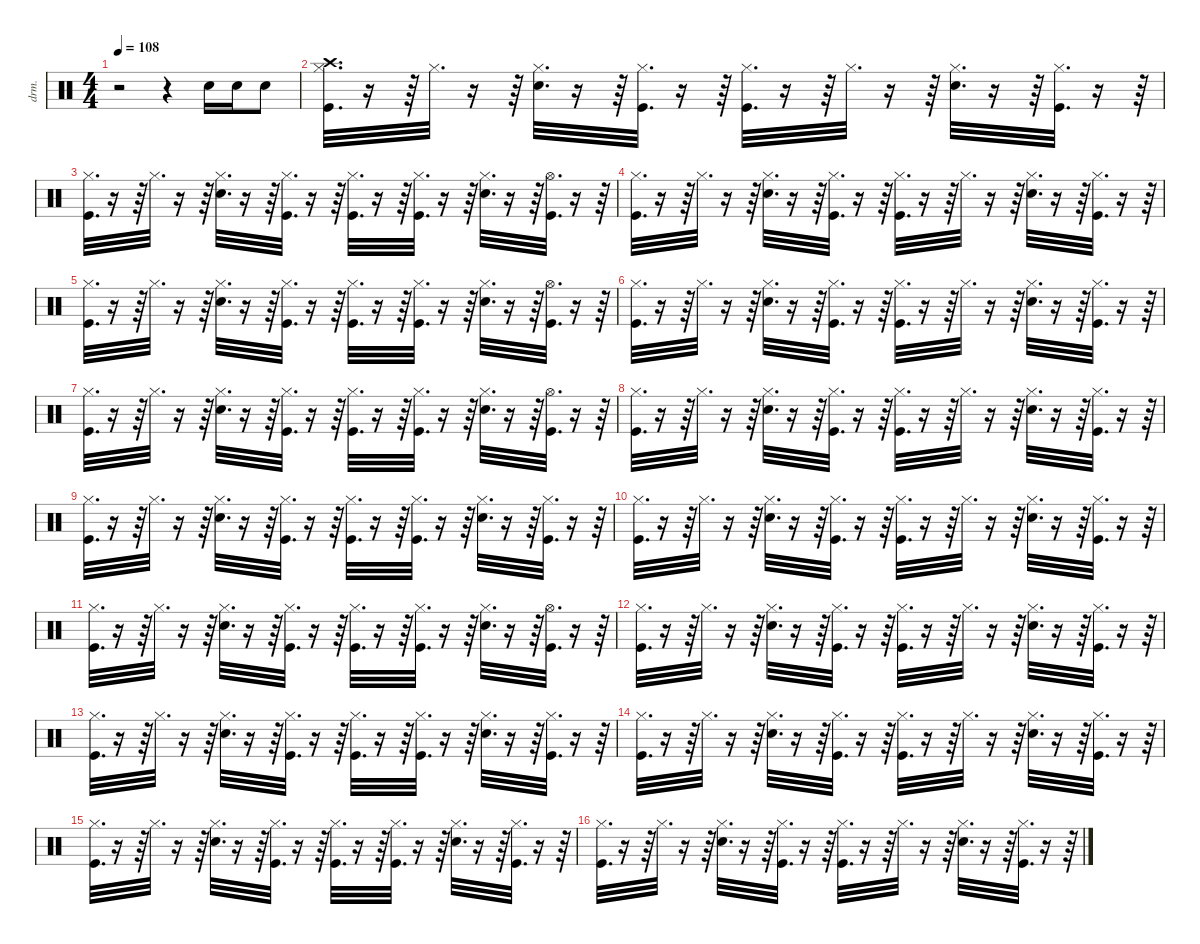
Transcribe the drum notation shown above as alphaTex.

\defaultSystemsLayout 4
\hideDynamics
\bracketExtendMode nobrackets
\otherSystemsTrackNameOrientation horizontal
\track ("Percussions" "drm.") {instrument percussion}
\staff {score}
\articulation defaults
\ts (4 4)
\tempo 108
\clef neutral
\ks c
r.2{dy f} r.4 "Snare (hit) 2".16 "Snare (hit) 2".16 "Snare (hit) 2".8 |
("Crash high (hit)" "Kick (hit)" "Hi-Hat (closed)").32{d} r.16 r.64 "Hi-Hat (closed)".32{d} r.16 r.64 ("Hi-Hat (closed)" "Snare (hit) 2").32{d} r.16 r.64 ("Hi-Hat (closed)" "Kick (hit)").32{d} r.16 r.64 ("Hi-Hat (closed)" "Kick (hit)").32{d} r.16 r.64 "Hi-Hat (closed)".32{d} r.16 r.64 ("Hi-Hat (closed)" "Snare (hit) 2").32{d} r.16 r.64 ("Hi-Hat (closed)" "Kick (hit)").32{d} r.16 r.64 |
("Hi-Hat (closed)" "Kick (hit)").32{d} r.16 r.64 "Hi-Hat (closed)".32{d} r.16 r.64 ("Hi-Hat (closed)" "Snare (hit) 2").32{d} r.16 r.64 ("Hi-Hat (closed)" "Kick (hit)").32{d} r.16 r.64 ("Hi-Hat (closed)" "Kick (hit)").32{d} r.16 r.64 ("Hi-Hat (closed)" "Kick (hit)").32{d} r.16 r.64 ("Hi-Hat (closed)" "Snare (hit) 2").32{d} r.16 r.64 ("Hi-Hat (open)" "Kick (hit)").32{d} r.16 r.64 |
("Hi-Hat (closed)" "Kick (hit)").32{d} r.16 r.64 "Hi-Hat (closed)".32{d} r.16 r.64 ("Hi-Hat (closed)" "Snare (hit) 2").32{d} r.16 r.64 ("Hi-Hat (closed)" "Kick (hit)").32{d} r.16 r.64 ("Hi-Hat (closed)" "Kick (hit)").32{d} r.16 r.64 "Hi-Hat (closed)".32{d} r.16 r.64 ("Hi-Hat (closed)" "Snare (hit) 2").32{d} r.16 r.64 ("Hi-Hat (closed)" "Kick (hit)").32{d} r.16 r.64 |
("Hi-Hat (closed)" "Kick (hit)").32{d} r.16 r.64 "Hi-Hat (closed)".32{d} r.16 r.64 ("Hi-Hat (closed)" "Snare (hit) 2").32{d} r.16 r.64 ("Hi-Hat (closed)" "Kick (hit)").32{d} r.16 r.64 ("Hi-Hat (closed)" "Kick (hit)").32{d} r.16 r.64 ("Hi-Hat (closed)" "Kick (hit)").32{d} r.16 r.64 ("Hi-Hat (closed)" "Snare (hit) 2").32{d} r.16 r.64 ("Hi-Hat (open)" "Kick (hit)").32{d} r.16 r.64 |
("Hi-Hat (closed)" "Kick (hit)").32{d} r.16 r.64 "Hi-Hat (closed)".32{d} r.16 r.64 ("Hi-Hat (closed)" "Snare (hit) 2").32{d} r.16 r.64 ("Hi-Hat (closed)" "Kick (hit)").32{d} r.16 r.64 ("Hi-Hat (closed)" "Kick (hit)").32{d} r.16 r.64 "Hi-Hat (closed)".32{d} r.16 r.64 ("Hi-Hat (closed)" "Snare (hit) 2").32{d} r.16 r.64 ("Hi-Hat (closed)" "Kick (hit)").32{d} r.16 r.64 |
("Hi-Hat (closed)" "Kick (hit)").32{d} r.16 r.64 "Hi-Hat (closed)".32{d} r.16 r.64 ("Hi-Hat (closed)" "Snare (hit) 2").32{d} r.16 r.64 ("Hi-Hat (closed)" "Kick (hit)").32{d} r.16 r.64 ("Hi-Hat (closed)" "Kick (hit)").32{d} r.16 r.64 ("Hi-Hat (closed)" "Kick (hit)").32{d} r.16 r.64 ("Hi-Hat (closed)" "Snare (hit) 2").32{d} r.16 r.64 ("Hi-Hat (open)" "Kick (hit)").32{d} r.16 r.64 |
("Hi-Hat (closed)" "Kick (hit)").32{d} r.16 r.64 "Hi-Hat (closed)".32{d} r.16 r.64 ("Hi-Hat (closed)" "Snare (hit) 2").32{d} r.16 r.64 ("Hi-Hat (closed)" "Kick (hit)").32{d} r.16 r.64 ("Hi-Hat (closed)" "Kick (hit)").32{d} r.16 r.64 "Hi-Hat (closed)".32{d} r.16 r.64 ("Hi-Hat (closed)" "Snare (hit) 2").32{d} r.16 r.64 ("Hi-Hat (closed)" "Kick (hit)").32{d} r.16 r.64 |
("Hi-Hat (closed)" "Kick (hit)").32{d} r.16 r.64 "Hi-Hat (closed)".32{d} r.16 r.64 ("Hi-Hat (closed)" "Snare (hit) 2").32{d} r.16 r.64 ("Hi-Hat (closed)" "Kick (hit)").32{d} r.16 r.64 ("Hi-Hat (closed)" "Kick (hit)").32{d} r.16 r.64 ("Hi-Hat (closed)" "Kick (hit)").32{d} r.16 r.64 ("Hi-Hat (closed)" "Snare (hit) 2").32{d} r.16 r.64 ("Hi-Hat (closed)" "Kick (hit)").32{d} r.16 r.64 |
("Hi-Hat (closed)" "Kick (hit)").32{d} r.16 r.64 "Hi-Hat (closed)".32{d} r.16 r.64 ("Hi-Hat (closed)" "Snare (hit) 2").32{d} r.16 r.64 ("Hi-Hat (closed)" "Kick (hit)").32{d} r.16 r.64 ("Hi-Hat (closed)" "Kick (hit)").32{d} r.16 r.64 "Hi-Hat (closed)".32{d} r.16 r.64 ("Hi-Hat (closed)" "Snare (hit) 2").32{d} r.16 r.64 ("Hi-Hat (closed)" "Kick (hit)").32{d} r.16 r.64 |
("Hi-Hat (closed)" "Kick (hit)").32{d} r.16 r.64 "Hi-Hat (closed)".32{d} r.16 r.64 ("Hi-Hat (closed)" "Snare (hit) 2").32{d} r.16 r.64 ("Hi-Hat (closed)" "Kick (hit)").32{d} r.16 r.64 ("Hi-Hat (closed)" "Kick (hit)").32{d} r.16 r.64 ("Hi-Hat (closed)" "Kick (hit)").32{d} r.16 r.64 ("Hi-Hat (closed)" "Snare (hit) 2").32{d} r.16 r.64 ("Hi-Hat (open)" "Kick (hit)").32{d} r.16 r.64 |
("Hi-Hat (closed)" "Kick (hit)").32{d} r.16 r.64 "Hi-Hat (closed)".32{d} r.16 r.64 ("Hi-Hat (closed)" "Snare (hit) 2").32{d} r.16 r.64 ("Hi-Hat (closed)" "Kick (hit)").32{d} r.16 r.64 ("Hi-Hat (closed)" "Kick (hit)").32{d} r.16 r.64 "Hi-Hat (closed)".32{d} r.16 r.64 ("Hi-Hat (closed)" "Snare (hit) 2").32{d} r.16 r.64 ("Hi-Hat (closed)" "Kick (hit)").32{d} r.16 r.64 |
("Hi-Hat (closed)" "Kick (hit)").32{d} r.16 r.64 "Hi-Hat (closed)".32{d} r.16 r.64 ("Hi-Hat (closed)" "Snare (hit) 2").32{d} r.16 r.64 ("Hi-Hat (closed)" "Kick (hit)").32{d} r.16 r.64 ("Hi-Hat (closed)" "Kick (hit)").32{d} r.16 r.64 ("Hi-Hat (closed)" "Kick (hit)").32{d} r.16 r.64 ("Hi-Hat (closed)" "Snare (hit) 2").32{d} r.16 r.64 ("Hi-Hat (closed)" "Kick (hit)").32{d} r.16 r.64 |
("Hi-Hat (closed)" "Kick (hit)").32{d} r.16 r.64 "Hi-Hat (closed)".32{d} r.16 r.64 ("Hi-Hat (closed)" "Snare (hit) 2").32{d} r.16 r.64 ("Hi-Hat (closed)" "Kick (hit)").32{d} r.16 r.64 ("Hi-Hat (closed)" "Kick (hit)").32{d} r.16 r.64 "Hi-Hat (closed)".32{d} r.16 r.64 ("Hi-Hat (closed)" "Snare (hit) 2").32{d} r.16 r.64 ("Hi-Hat (closed)" "Kick (hit)").32{d} r.16 r.64 |
("Hi-Hat (closed)" "Kick (hit)").32{d} r.16 r.64 "Hi-Hat (closed)".32{d} r.16 r.64 ("Hi-Hat (closed)" "Snare (hit) 2").32{d} r.16 r.64 ("Hi-Hat (closed)" "Kick (hit)").32{d} r.16 r.64 ("Hi-Hat (closed)" "Kick (hit)").32{d} r.16 r.64 ("Hi-Hat (closed)" "Kick (hit)").32{d} r.16 r.64 ("Hi-Hat (closed)" "Snare (hit) 2").32{d} r.16 r.64 ("Hi-Hat (closed)" "Kick (hit)").32{d} r.16 r.64 |
("Hi-Hat (closed)" "Kick (hit)").32{d} r.16 r.64 "Hi-Hat (closed)".32{d} r.16 r.64 ("Hi-Hat (closed)" "Snare (hit) 2").32{d} r.16 r.64 ("Hi-Hat (closed)" "Kick (hit)").32{d} r.16 r.64 ("Hi-Hat (closed)" "Kick (hit)").32{d} r.16 r.64 "Hi-Hat (closed)".32{d} r.16 r.64 ("Hi-Hat (closed)" "Snare (hit) 2").32{d} r.16 r.64 ("Hi-Hat (closed)" "Kick (hit)").32{d} r.16 r.64
